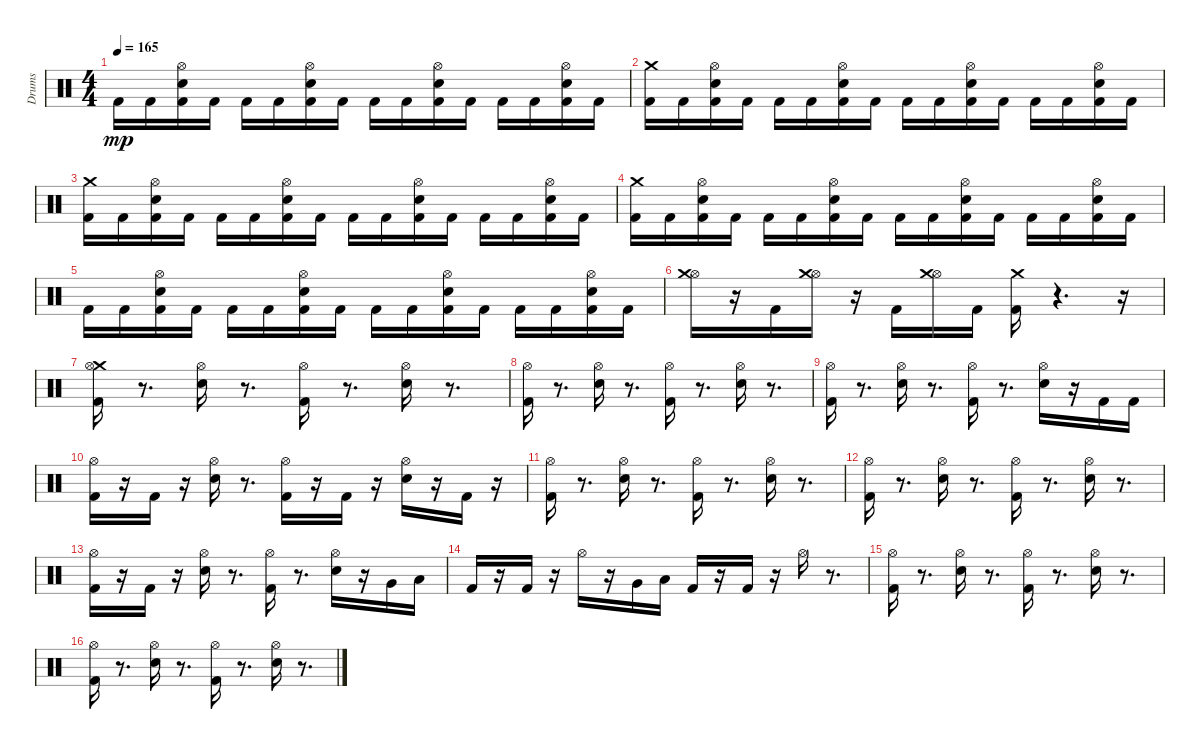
\track ("Drums" "Drums") {instrument percussion}
\staff {score}
\articulation defaults
\ts (4 4)
\tempo 165
\clef neutral
\ks c "Kick (hit) 2".16{dy mp} "Kick (hit) 2".16
("Kick (hit) 2" "Electric Snare (hit)" "Hi-Hat (open)").16 "Kick (hit) 2".16 "Kick (hit) 2".16 "Kick (hit) 2".16 ("Electric Snare (hit)" "Hi-Hat (open)" "Kick (hit) 2").16 "Kick (hit) 2".16 "Kick (hit) 2".16 "Kick (hit) 2".16 ("Kick (hit) 2" "Electric Snare (hit)" "Hi-Hat (open)").16 "Kick (hit) 2".16 "Kick (hit) 2".16 "Kick (hit) 2".16 ("Kick (hit) 2" "Hi-Hat (open)" "Electric Snare (hit)").16 "Kick (hit) 2".16 |
("Kick (hit) 2" "Crash medium (hit)").16 "Kick (hit) 2".16 ("Hi-Hat (open)" "Kick (hit) 2" "Electric Snare (hit)").16 "Kick (hit) 2".16 "Kick (hit) 2".16 "Kick (hit) 2".16 ("Electric Snare (hit)" "Hi-Hat (open)" "Kick (hit) 2").16 "Kick (hit) 2".16 "Kick (hit) 2".16 "Kick (hit) 2".16 ("Kick (hit) 2" "Hi-Hat (open)" "Electric Snare (hit)").16 "Kick (hit) 2".16 "Kick (hit) 2".16 "Kick (hit) 2".16 ("Kick (hit) 2" "Electric Snare (hit)" "Hi-Hat (open)").16 "Kick (hit) 2".16 |
("Crash medium (hit)" "Kick (hit) 2").16 "Kick (hit) 2".16 ("Electric Snare (hit)" "Kick (hit) 2" "Hi-Hat (open)").16 "Kick (hit) 2".16 "Kick (hit) 2".16 "Kick (hit) 2".16 ("Kick (hit) 2" "Electric Snare (hit)" "Hi-Hat (open)").16 "Kick (hit) 2".16 "Kick (hit) 2".16 "Kick (hit) 2".16 ("Hi-Hat (open)" "Electric Snare (hit)" "Kick (hit) 2").16 "Kick (hit) 2".16 "Kick (hit) 2".16 "Kick (hit) 2".16 ("Kick (hit) 2" "Hi-Hat (open)" "Electric Snare (hit)").16 "Kick (hit) 2".16 |
("Kick (hit) 2" "Crash medium (hit)").16 "Kick (hit) 2".16 ("Electric Snare (hit)" "Hi-Hat (open)" "Kick (hit) 2").16 "Kick (hit) 2".16 "Kick (hit) 2".16 "Kick (hit) 2".16 ("Hi-Hat (open)" "Electric Snare (hit)" "Kick (hit) 2").16 "Kick (hit) 2".16 "Kick (hit) 2".16 "Kick (hit) 2".16 ("Hi-Hat (open)" "Kick (hit) 2" "Electric Snare (hit)").16 "Kick (hit) 2".16 "Kick (hit) 2".16 "Kick (hit) 2".16 ("Electric Snare (hit)" "Kick (hit) 2" "Hi-Hat (open)").16 "Kick (hit) 2".16 |
"Kick (hit) 2".16 "Kick (hit) 2".16 ("Hi-Hat (open)" "Electric Snare (hit)" "Kick (hit) 2").16 "Kick (hit) 2".16 "Kick (hit) 2".16 "Kick (hit) 2".16 ("Hi-Hat (open)" "Kick (hit) 2" "Electric Snare (hit)").16 "Kick (hit) 2".16 "Kick (hit) 2".16 "Kick (hit) 2".16 ("Hi-Hat (open)" "Kick (hit) 2" "Electric Snare (hit)").16 "Kick (hit) 2".16 "Kick (hit) 2".16 "Kick (hit) 2".16 ("Kick (hit) 2" "Hi-Hat (open)" "Electric Snare (hit)").16 "Kick (hit) 2".16 |
("Hi-Hat (open)" "Crash medium (hit)").16 r.16 "Kick (hit) 2".16 ("Hi-Hat (open)" "Crash medium (hit)").16 r.16 "Kick (hit) 2".16 ("Hi-Hat (open)" "Crash medium (hit)").16 "Kick (hit) 2".16 ("Crash medium (hit)" "Kick (hit) 2").16 r.4{d} r.16 |
("Crash medium (hit)" "Kick (hit) 2" "Hi-Hat (open)").16 r.8{d} ("Hi-Hat (open)" "Electric Snare (hit)").16 r.8{d} ("Kick (hit) 2" "Hi-Hat (open)").16 r.8{d} ("Electric Snare (hit)" "Hi-Hat (open)").16 r.8{d} |
("Kick (hit) 2" "Hi-Hat (open)").16 r.8{d} ("Electric Snare (hit)" "Hi-Hat (open)").16 r.8{d} ("Hi-Hat (open)" "Kick (hit) 2").16 r.8{d} ("Hi-Hat (open)" "Electric Snare (hit)").16 r.8{d} |
("Kick (hit) 2" "Hi-Hat (open)").16 r.8{d} ("Hi-Hat (open)" "Electric Snare (hit)").16 r.8{d} ("Hi-Hat (open)" "Kick (hit) 2").16 r.8{d} ("Electric Snare (hit)" "Hi-Hat (open)").16 r.16 "Kick (hit) 2".16 "Kick (hit) 2".16 |
("Hi-Hat (open)" "Kick (hit) 2").16 r.16 "Kick (hit) 2".16 r.16 ("Electric Snare (hit)" "Hi-Hat (open)").16 r.8{d} ("Hi-Hat (open)" "Kick (hit) 2").16 r.16 "Kick (hit) 2".16 r.16 ("Electric Snare (hit)" "Hi-Hat (open)").16 r.16 "Kick (hit) 2".16 r.16 |
("Kick (hit) 2" "Hi-Hat (open)").16 r.8{d} ("Hi-Hat (open)" "Electric Snare (hit)").16 r.8{d} ("Kick (hit) 2" "Hi-Hat (open)").16 r.8{d} ("Hi-Hat (open)" "Electric Snare (hit)").16 r.8{d} |
("Kick (hit) 2" "Hi-Hat (open)").16 r.8{d} ("Electric Snare (hit)" "Hi-Hat (open)").16 r.8{d} ("Hi-Hat (open)" "Kick (hit) 2").16 r.8{d} ("Hi-Hat (open)" "Electric Snare (hit)").16 r.8{d} |
("Hi-Hat (open)" "Kick (hit) 2").16 r.16 "Kick (hit) 2".16 r.16 ("Hi-Hat (open)" "Electric Snare (hit)").16 r.8{d} ("Hi-Hat (open)" "Kick (hit) 2").16 r.8{d} ("Electric Snare (hit)" "Hi-Hat (open)").16 r.16 "Very Low Tom (hit)".16 "Low Floor Tom (hit)".16 |
"Kick (hit) 2".16 r.16 "Kick (hit) 2".16 r.16 "Hi-Hat (open)".16 r.16 "Very Low Tom (hit)".16 "Low Floor Tom (hit)".16 "Kick (hit) 2".16 r.16 "Kick (hit) 2".16 r.16 "Hi-Hat (open)".16 r.8{d} |
("Hi-Hat (open)" "Kick (hit) 2").16 r.8{d} ("Hi-Hat (open)" "Electric Snare (hit)").16 r.8{d} ("Kick (hit) 2" "Hi-Hat (open)").16 r.8{d} ("Hi-Hat (open)" "Electric Snare (hit)").16 r.8{d} |
("Kick (hit) 2" "Hi-Hat (open)").16 r.8{d} ("Electric Snare (hit)" "Hi-Hat (open)").16 r.8{d} ("Kick (hit) 2" "Hi-Hat (open)").16 r.8{d} ("Electric Snare (hit)" "Hi-Hat (open)").16 r.8{d}
